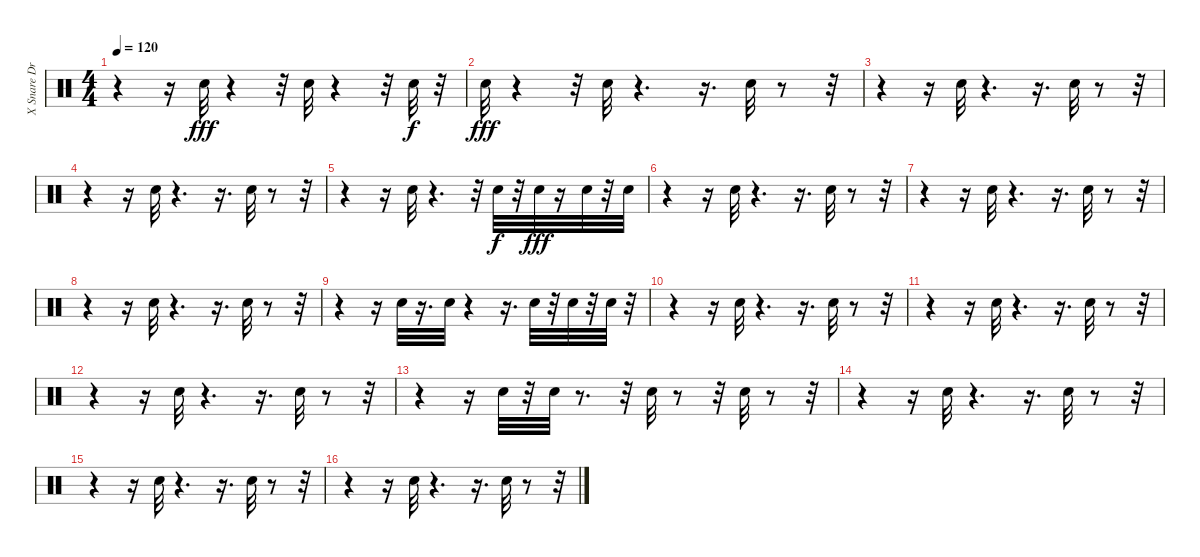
\track ("X Snare Drum        " "X Snare Dr") {instrument percussion}
\staff {score}
\articulation defaults
\ts (4 4)
\tempo 120
\clef neutral
\ks c
r.4{dy fff} r.16 "Snare (hit) 2".32 r.4 r.32 "Snare (hit) 2".32 r.4 r.32 "Snare (hit) 2".32{dy f} r.32 |
"Snare (hit) 2".32{dy fff} r.4 r.32 "Snare (hit) 2".32 r.4{d} r.16{d} "Snare (hit) 2".32 r.8 r.32 |
r.4 r.16 "Snare (hit) 2".32 r.4{d} r.16{d} "Snare (hit) 2".32 r.8 r.32 |
r.4 r.16 "Snare (hit) 2".32 r.4{d} r.16{d} "Snare (hit) 2".32 r.8 r.32 |
r.4 r.16 "Snare (hit) 2".32 r.4{d} r.32 "Snare (hit) 2".32{dy f} r.32 "Snare (hit) 2".32{dy fff} r.16 "Snare (hit) 2".32 r.32 "Snare (hit) 2".32 |
r.4 r.16 "Snare (hit) 2".32 r.4{d} r.16{d} "Snare (hit) 2".32 r.8 r.32 |
r.4 r.16 "Snare (hit) 2".32 r.4{d} r.16{d} "Snare (hit) 2".32 r.8 r.32 |
r.4 r.16 "Snare (hit) 2".32 r.4{d} r.16{d} "Snare (hit) 2".32 r.8 r.32 |
r.4 r.16 "Snare (hit) 2".32 r.16{d} "Snare (hit) 2".32 r.4 r.16{d} "Snare (hit) 2".32 r.32 "Snare (hit) 2".32 r.32 "Snare (hit) 2".32 r.32 |
r.4 r.16 "Snare (hit) 2".32 r.4{d} r.16{d} "Snare (hit) 2".32 r.8 r.32 |
r.4 r.16 "Snare (hit) 2".32 r.4{d} r.16{d} "Snare (hit) 2".32 r.8 r.32 |
r.4 r.16 "Snare (hit) 2".32 r.4{d} r.16{d} "Snare (hit) 2".32 r.8 r.32 |
r.4 r.16 "Snare (hit) 2".32 r.32 "Snare (hit) 2".32 r.8{d} r.32 "Snare (hit) 2".32 r.8 r.32 "Snare (hit) 2".32 r.8 r.32 |
r.4 r.16 "Snare (hit) 2".32 r.4{d} r.16{d} "Snare (hit) 2".32 r.8 r.32 |
r.4 r.16 "Snare (hit) 2".32 r.4{d} r.16{d} "Snare (hit) 2".32 r.8 r.32 |
r.4 r.16 "Snare (hit) 2".32 r.4{d} r.16{d} "Snare (hit) 2".32 r.8 r.32
